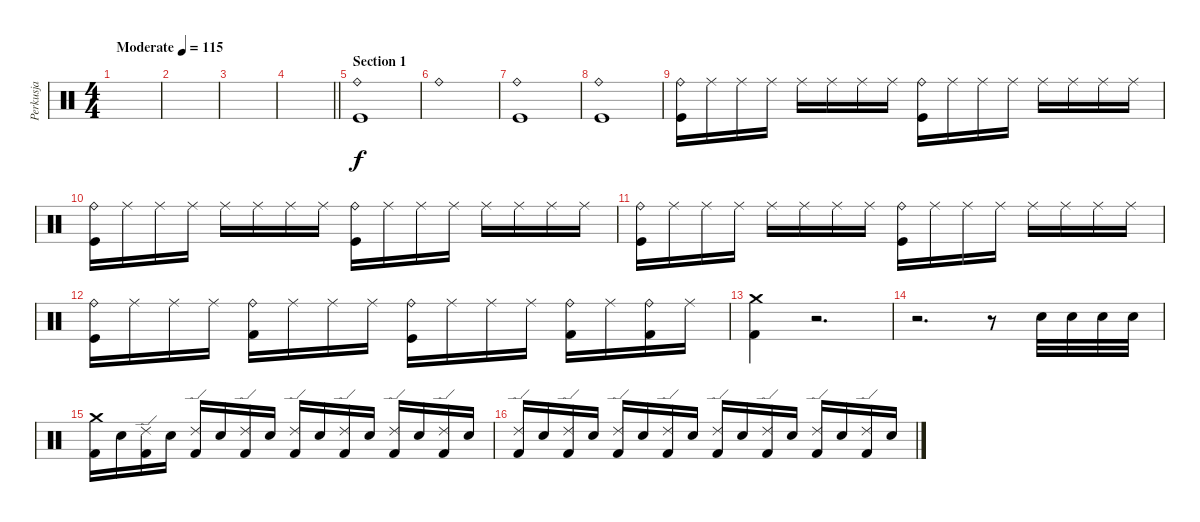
\track ("Perkusja" "Perkusja") {instrument percussion}
\staff {score}
\articulation defaults
\ts (4 4)
\tempo (115 "Moderate")
\clef neutral
\ks c
|
|
|
\barLineRight lightlight
|
\section ("" "Section 1")
("Kick (hit)" "Ride (bell)").1 |
"Ride (bell)".1 |
("Kick (hit)" "Ride (bell)").1 |
("Kick (hit)" "Ride (bell)").1 |
("Ride (bell)" "Kick (hit)").16 "Ride (middle)".16 "Ride (middle)".16 "Ride (middle)".16 "Ride (middle)".16 "Ride (middle)".16 "Ride (middle)".16 "Ride (middle)".16 ("Ride (bell)" "Kick (hit)").16 "Ride (middle)".16 "Ride (middle)".16 "Ride (middle)".16 "Ride (middle)".16 "Ride (middle)".16 "Ride (middle)".16 "Ride (middle)".16 |
("Ride (bell)" "Kick (hit)").16 "Ride (middle)".16 "Ride (middle)".16 "Ride (middle)".16 "Ride (middle)".16 "Ride (middle)".16 "Ride (middle)".16 "Ride (middle)".16 ("Ride (bell)" "Kick (hit)").16 "Ride (middle)".16 "Ride (middle)".16 "Ride (middle)".16 "Ride (middle)".16 "Ride (middle)".16 "Ride (middle)".16 "Ride (middle)".16 |
("Ride (bell)" "Kick (hit)").16 "Ride (middle)".16 "Ride (middle)".16 "Ride (middle)".16 "Ride (middle)".16 "Ride (middle)".16 "Ride (middle)".16 "Ride (middle)".16 ("Ride (bell)" "Kick (hit)").16 "Ride (middle)".16 "Ride (middle)".16 "Ride (middle)".16 "Ride (middle)".16 "Ride (middle)".16 "Ride (middle)".16 "Ride (middle)".16 |
("Ride (bell)" "Kick (hit)").16 "Ride (middle)".16 "Ride (middle)".16 "Ride (middle)".16 ("Ride (bell)" "Kick (hit) 2").16 "Ride (middle)".16 "Ride (middle)".16 "Ride (middle)".16 ("Ride (bell)" "Kick (hit)").16 "Ride (middle)".16 "Ride (middle)".16 "Ride (middle)".16 ("Ride (bell)" "Kick (hit) 2").16 "Ride (middle)".16 ("Ride (bell)" "Kick (hit) 2").16 "Ride (middle)".16 |
("Crash medium (hit)" "Kick (hit) 2").4 r.2{d} |
r.2{d} r.8 "Snare (hit) 2".32 "Snare (hit) 2".32 "Snare (hit) 2".32 "Snare (hit) 2".32 |
("Kick (hit) 2" "Crash medium (hit)").16 "Snare (hit) 2".16 ("Kick (hit) 2" "Ride (edge) 2").16 "Snare (hit) 2".16 ("Kick (hit) 2" "Ride (edge) 2").16 "Snare (hit) 2".16 ("Kick (hit) 2" "Ride (edge) 2").16 "Snare (hit) 2".16 ("Kick (hit) 2" "Ride (edge) 2").16 "Snare (hit) 2".16 ("Kick (hit) 2" "Ride (edge) 2").16 "Snare (hit) 2".16 ("Kick (hit) 2" "Ride (edge) 2").16 "Snare (hit) 2".16 ("Kick (hit) 2" "Ride (edge) 2").16 "Snare (hit) 2".16 |
("Kick (hit) 2" "Ride (edge) 2").16 "Snare (hit) 2".16 ("Kick (hit) 2" "Ride (edge) 2").16 "Snare (hit) 2".16 ("Kick (hit) 2" "Ride (edge) 2").16 "Snare (hit) 2".16 ("Kick (hit) 2" "Ride (edge) 2").16 "Snare (hit) 2".16 ("Kick (hit) 2" "Ride (edge) 2").16 "Snare (hit) 2".16 ("Kick (hit) 2" "Ride (edge) 2").16 "Snare (hit) 2".16 ("Kick (hit) 2" "Ride (edge) 2").16 "Snare (hit) 2".16 ("Kick (hit) 2" "Ride (edge) 2").16 "Snare (hit) 2".16
